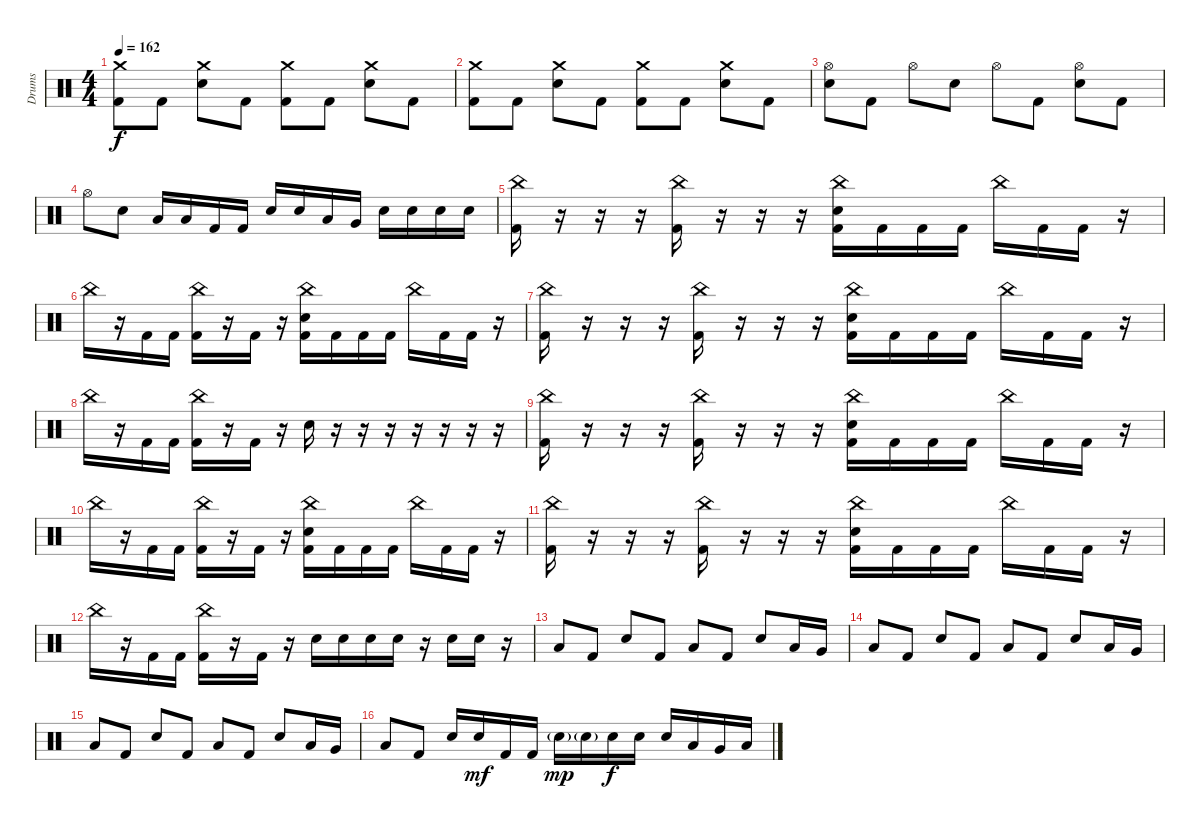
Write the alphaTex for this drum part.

\track ("Drums" "Drums") {instrument percussion}
\staff {score}
\articulation defaults
\ts (4 4)
\tempo 162
\clef neutral
\ks c
("Crash medium (hit)" "Kick (hit) 2").8{dy f} "Kick (hit) 2".8 ("Crash medium (hit)" "Electric Snare (hit)").8 "Kick (hit) 2".8 ("Crash medium (hit)" "Kick (hit) 2").8 "Kick (hit) 2".8 ("Crash medium (hit)" "Electric Snare (hit)").8 "Kick (hit) 2".8 |
("Crash medium (hit)" "Kick (hit) 2").8 "Kick (hit) 2".8 ("Crash medium (hit)" "Electric Snare (hit)").8 "Kick (hit) 2".8 ("Crash medium (hit)" "Kick (hit) 2").8 "Kick (hit) 2".8 ("Crash medium (hit)" "Electric Snare (hit)").8 "Kick (hit) 2".8 |
("Hi-Hat (open)" "Electric Snare (hit)").8 "Kick (hit) 2".8 "Hi-Hat (open)".8 "Electric Snare (hit)".8 "Hi-Hat (open)".8 "Kick (hit) 2".8 ("Hi-Hat (open)" "Electric Snare (hit)").8 "Kick (hit) 2".8 |
"Hi-Hat (open)".8 "Electric Snare (hit)".8 "Low Tom (hit)".16 "Low Tom (hit)".16 "Kick (hit) 2".16 "Kick (hit) 2".16 "Electric Snare (hit)".16 "Electric Snare (hit)".16 "Low Tom (hit)".16 "Very Low Tom (hit)".16 "Electric Snare (hit)".16 "Electric Snare (hit)".16 "Electric Snare (hit)".16 "Electric Snare (hit)".16 |
("China (hit)" "Kick (hit) 2").16 r.16 r.16 r.16 ("China (hit)" "Kick (hit) 2").16 r.16 r.16 r.16 ("China (hit)" "Electric Snare (hit)" "Kick (hit) 2").16 "Kick (hit) 2".16 "Kick (hit) 2".16 "Kick (hit) 2".16 "China (hit)".16 "Kick (hit) 2".16 "Kick (hit) 2".16 r.16 |
"China (hit)".16 r.16 "Kick (hit) 2".16 "Kick (hit) 2".16 ("China (hit)" "Kick (hit) 2").16 r.16 "Kick (hit) 2".16 r.16 ("China (hit)" "Electric Snare (hit)" "Kick (hit) 2").16 "Kick (hit) 2".16 "Kick (hit) 2".16 "Kick (hit) 2".16 "China (hit)".16 "Kick (hit) 2".16 "Kick (hit) 2".16 r.16 |
("China (hit)" "Kick (hit) 2").16 r.16 r.16 r.16 ("China (hit)" "Kick (hit) 2").16 r.16 r.16 r.16 ("China (hit)" "Electric Snare (hit)" "Kick (hit) 2").16 "Kick (hit) 2".16 "Kick (hit) 2".16 "Kick (hit) 2".16 "China (hit)".16 "Kick (hit) 2".16 "Kick (hit) 2".16 r.16 |
"China (hit)".16 r.16 "Kick (hit) 2".16 "Kick (hit) 2".16 ("China (hit)" "Kick (hit) 2").16 r.16 "Kick (hit) 2".16 r.16 "Electric Snare (hit)".16 r.16 r.16 r.16 r.16 r.16 r.16 r.16 |
("China (hit)" "Kick (hit) 2").16 r.16 r.16 r.16 ("China (hit)" "Kick (hit) 2").16 r.16 r.16 r.16 ("China (hit)" "Electric Snare (hit)" "Kick (hit) 2").16 "Kick (hit) 2".16 "Kick (hit) 2".16 "Kick (hit) 2".16 "China (hit)".16 "Kick (hit) 2".16 "Kick (hit) 2".16 r.16 |
"China (hit)".16 r.16 "Kick (hit) 2".16 "Kick (hit) 2".16 ("China (hit)" "Kick (hit) 2").16 r.16 "Kick (hit) 2".16 r.16 ("China (hit)" "Electric Snare (hit)" "Kick (hit) 2").16 "Kick (hit) 2".16 "Kick (hit) 2".16 "Kick (hit) 2".16 "China (hit)".16 "Kick (hit) 2".16 "Kick (hit) 2".16 r.16 |
("China (hit)" "Kick (hit) 2").16 r.16 r.16 r.16 ("China (hit)" "Kick (hit) 2").16 r.16 r.16 r.16 ("China (hit)" "Electric Snare (hit)" "Kick (hit) 2").16 "Kick (hit) 2".16 "Kick (hit) 2".16 "Kick (hit) 2".16 "China (hit)".16 "Kick (hit) 2".16 "Kick (hit) 2".16 r.16 |
"China (hit)".16 r.16 "Kick (hit) 2".16 "Kick (hit) 2".16 ("China (hit)" "Kick (hit) 2").16 r.16 "Kick (hit) 2".16 r.16 "Electric Snare (hit)".16 "Electric Snare (hit)".16 "Electric Snare (hit)".16 "Electric Snare (hit)".16 r.16 "Electric Snare (hit)".16 "Electric Snare (hit)".16 r.16 |
"Low Floor Tom (hit)".8 "Kick (hit) 2".8 "Electric Snare (hit)".8 "Kick (hit) 2".8 "Low Floor Tom (hit)".8 "Kick (hit) 2".8 "Electric Snare (hit)".8 "Low Tom (hit)".16 "Very Low Tom (hit)".16 |
"Low Floor Tom (hit)".8 "Kick (hit) 2".8 "Electric Snare (hit)".8 "Kick (hit) 2".8 "Low Floor Tom (hit)".8 "Kick (hit) 2".8 "Electric Snare (hit)".8 "Low Tom (hit)".16 "Very Low Tom (hit)".16 |
"Low Floor Tom (hit)".8 "Kick (hit) 2".8 "Electric Snare (hit)".8 "Kick (hit) 2".8 "Low Floor Tom (hit)".8 "Kick (hit) 2".8 "Electric Snare (hit)".8 "Low Tom (hit)".16 "Very Low Tom (hit)".16 |
"Low Floor Tom (hit)".8 "Kick (hit) 2".8 "Electric Snare (hit)".16 "Electric Snare (hit)".16{dy mf} "Kick (hit) 2".16 "Kick (hit) 2".16 "Snare (hit) 2"{g}.16{dy mp} "Snare (hit) 2"{g}.16 "Electric Snare (hit)".16{dy f} "Electric Snare (hit)".16 "Electric Snare (hit)".16 "Low Tom (hit)".16 "Very Low Tom (hit)".16 "Low Floor Tom (hit)".16
